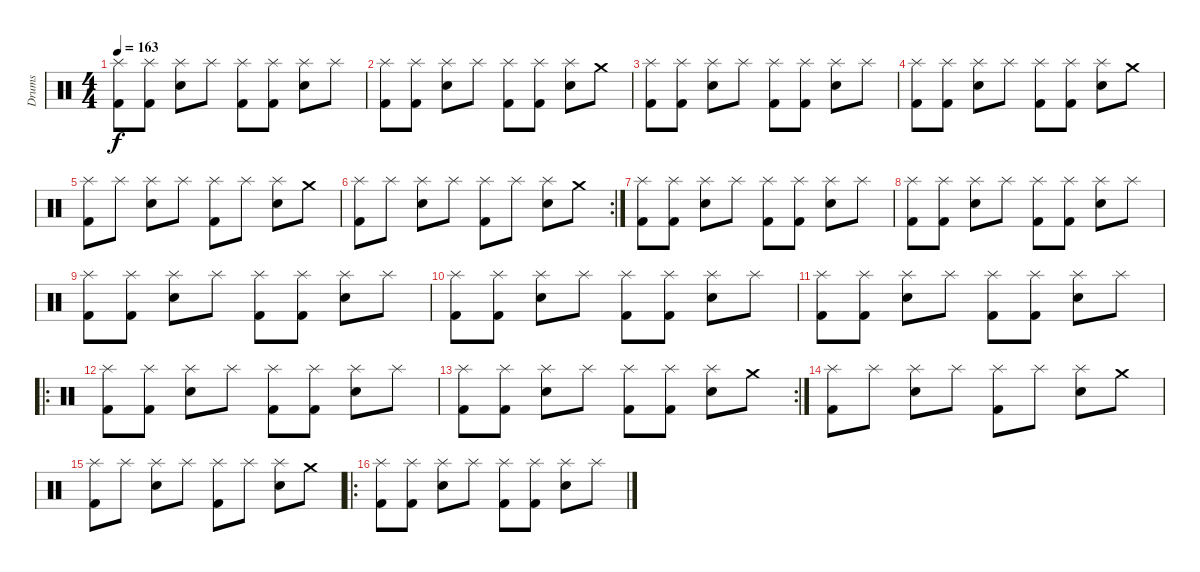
\track ("Drums" "Drums") {instrument percussion}
\staff {score}
\articulation defaults
\ts (4 4)
\tempo 163
\clef neutral
\ks c
("Splash (hit)" "Kick (hit) 2").8{dy f} ("Splash (hit)" "Kick (hit) 2").8 ("Splash (hit)" "Snare (hit) 2").8 "Splash (hit)".8 ("Splash (hit)" "Kick (hit) 2").8 ("Splash (hit)" "Kick (hit) 2").8 ("Splash (hit)" "Snare (hit) 2").8 "Splash (hit)".8 |
("Splash (hit)" "Kick (hit) 2").8 ("Splash (hit)" "Kick (hit) 2").8 ("Splash (hit)" "Snare (hit) 2").8 "Splash (hit)".8 ("Splash (hit)" "Kick (hit) 2").8 ("Splash (hit)" "Kick (hit) 2").8 ("Splash (hit)" "Snare (hit) 2").8 "Crash medium (hit)".8 |
("Splash (hit)" "Kick (hit) 2").8 ("Splash (hit)" "Kick (hit) 2").8 ("Splash (hit)" "Snare (hit) 2").8 "Splash (hit)".8 ("Splash (hit)" "Kick (hit) 2").8 ("Splash (hit)" "Kick (hit) 2").8 ("Splash (hit)" "Snare (hit) 2").8 "Splash (hit)".8 |
("Splash (hit)" "Kick (hit) 2").8 ("Splash (hit)" "Kick (hit) 2").8 ("Splash (hit)" "Snare (hit) 2").8 "Splash (hit)".8 ("Splash (hit)" "Kick (hit) 2").8 ("Splash (hit)" "Kick (hit) 2").8 ("Splash (hit)" "Snare (hit) 2").8 "Crash medium (hit)".8 |
("Splash (hit)" "Kick (hit) 2").8 "Splash (hit)".8 ("Splash (hit)" "Snare (hit) 2").8 "Splash (hit)".8 ("Splash (hit)" "Kick (hit) 2").8 "Splash (hit)".8 ("Splash (hit)" "Snare (hit) 2").8 "Crash medium (hit)".8 |
\rc 2
("Splash (hit)" "Kick (hit) 2").8 "Splash (hit)".8 ("Splash (hit)" "Snare (hit) 2").8 "Splash (hit)".8 ("Splash (hit)" "Kick (hit) 2").8 "Splash (hit)".8 ("Splash (hit)" "Snare (hit) 2").8 "Crash medium (hit)".8 |
("Splash (hit)" "Kick (hit) 2").8 ("Splash (hit)" "Kick (hit) 2").8 ("Splash (hit)" "Snare (hit) 2").8 "Splash (hit)".8 ("Splash (hit)" "Kick (hit) 2").8 ("Splash (hit)" "Kick (hit) 2").8 ("Splash (hit)" "Snare (hit) 2").8 "Splash (hit)".8 |
("Splash (hit)" "Kick (hit) 2").8 ("Splash (hit)" "Kick (hit) 2").8 ("Splash (hit)" "Snare (hit) 2").8 "Splash (hit)".8 ("Splash (hit)" "Kick (hit) 2").8 ("Splash (hit)" "Kick (hit) 2").8 ("Splash (hit)" "Snare (hit) 2").8 "Splash (hit)".8 |
("Splash (hit)" "Kick (hit) 2").8 ("Splash (hit)" "Kick (hit) 2").8 ("Splash (hit)" "Snare (hit) 2").8 "Splash (hit)".8 ("Splash (hit)" "Kick (hit) 2").8 ("Splash (hit)" "Kick (hit) 2").8 ("Splash (hit)" "Snare (hit) 2").8 "Splash (hit)".8 |
("Splash (hit)" "Kick (hit) 2").8 ("Splash (hit)" "Kick (hit) 2").8 ("Splash (hit)" "Snare (hit) 2").8 "Splash (hit)".8 ("Splash (hit)" "Kick (hit) 2").8 ("Splash (hit)" "Kick (hit) 2").8 ("Splash (hit)" "Snare (hit) 2").8 "Splash (hit)".8 |
("Splash (hit)" "Kick (hit) 2").8 ("Splash (hit)" "Kick (hit) 2").8 ("Splash (hit)" "Snare (hit) 2").8 "Splash (hit)".8 ("Splash (hit)" "Kick (hit) 2").8 ("Splash (hit)" "Kick (hit) 2").8 ("Splash (hit)" "Snare (hit) 2").8 "Splash (hit)".8 |
\ro
("Splash (hit)" "Kick (hit) 2").8 ("Splash (hit)" "Kick (hit) 2").8 ("Splash (hit)" "Snare (hit) 2").8 "Splash (hit)".8 ("Splash (hit)" "Kick (hit) 2").8 ("Splash (hit)" "Kick (hit) 2").8 ("Splash (hit)" "Snare (hit) 2").8 "Splash (hit)".8 |
\rc 2
("Splash (hit)" "Kick (hit) 2").8 ("Splash (hit)" "Kick (hit) 2").8 ("Splash (hit)" "Snare (hit) 2").8 "Splash (hit)".8 ("Splash (hit)" "Kick (hit) 2").8 ("Splash (hit)" "Kick (hit) 2").8 ("Splash (hit)" "Snare (hit) 2").8 "Crash medium (hit)".8 |
("Splash (hit)" "Kick (hit) 2").8 "Splash (hit)".8 ("Splash (hit)" "Snare (hit) 2").8 "Splash (hit)".8 ("Splash (hit)" "Kick (hit) 2").8 "Splash (hit)".8 ("Splash (hit)" "Snare (hit) 2").8 "Crash medium (hit)".8 |
("Splash (hit)" "Kick (hit) 2").8 "Splash (hit)".8 ("Splash (hit)" "Snare (hit) 2").8 "Splash (hit)".8 ("Splash (hit)" "Kick (hit) 2").8 "Splash (hit)".8 ("Splash (hit)" "Snare (hit) 2").8 "Crash medium (hit)".8 |
\ro
("Splash (hit)" "Kick (hit) 2").8 ("Splash (hit)" "Kick (hit) 2").8 ("Splash (hit)" "Snare (hit) 2").8 "Splash (hit)".8 ("Splash (hit)" "Kick (hit) 2").8 ("Splash (hit)" "Kick (hit) 2").8 ("Splash (hit)" "Snare (hit) 2").8 "Splash (hit)".8
